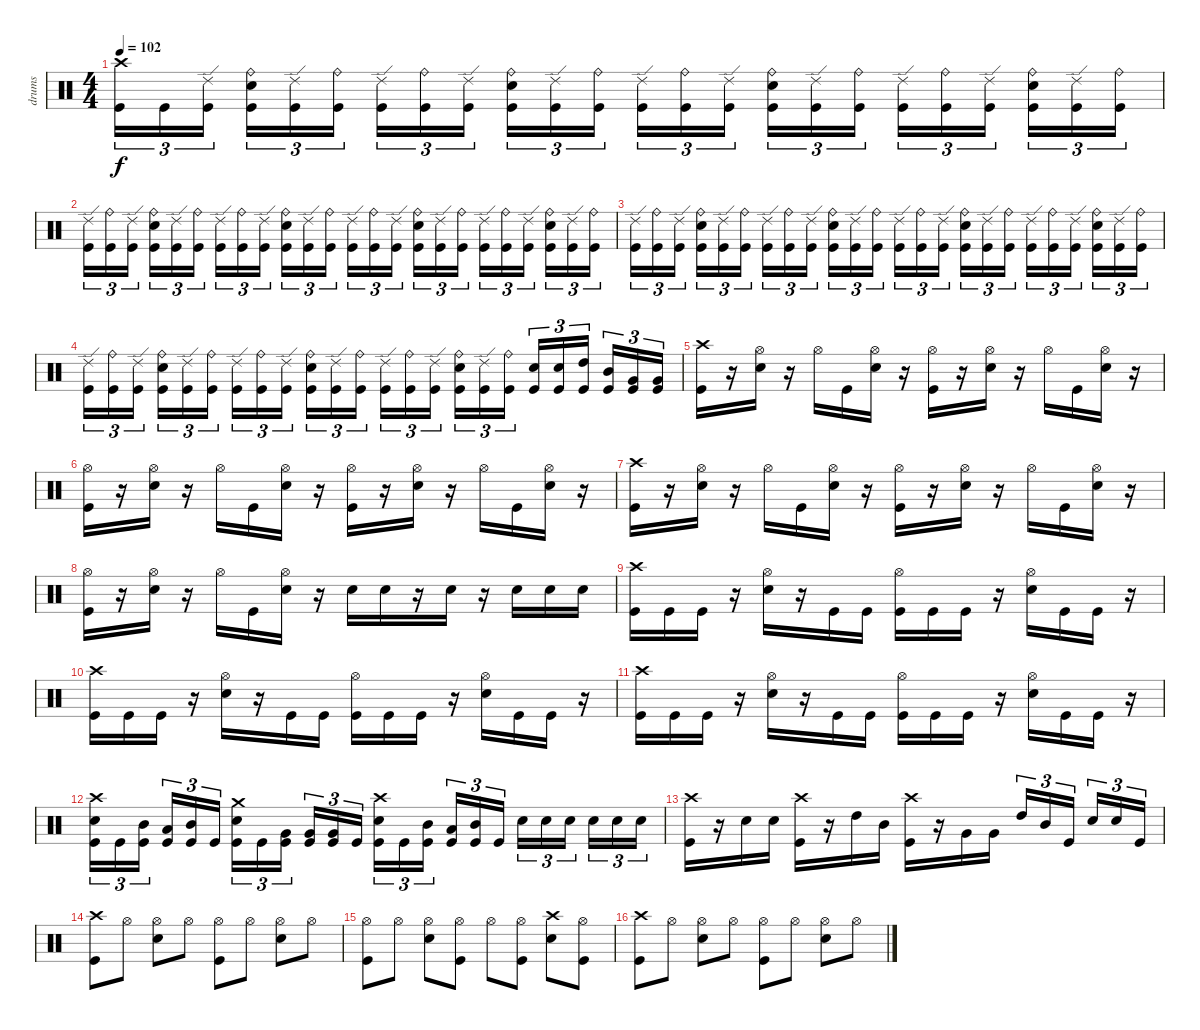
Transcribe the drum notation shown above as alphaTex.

\track ("drums" "drums") {instrument percussion}
\staff {score}
\articulation defaults
\ts (4 4)
\tempo 102
\clef neutral
\ks c
("Crash high (hit)" "Kick (hit)").16{tu (3 2) dy f} "Kick (hit)".16{tu (3 2)} ("Ride (edge) 2" "Kick (hit)").16{tu (3 2)} ("Ride (bell)" "Kick (hit)" "Snare (hit) 2").16{tu (3 2)} ("Ride (edge) 2" "Kick (hit)").16{tu (3 2)} ("Ride (bell)" "Kick (hit)").16{tu (3 2)} ("Ride (edge) 2" "Kick (hit)").16{tu (3 2)} ("Ride (bell)" "Kick (hit)").16{tu (3 2)} ("Ride (edge) 2" "Kick (hit)").16{tu (3 2)} ("Ride (bell)" "Snare (hit) 2" "Kick (hit)").16{tu (3 2)} ("Ride (edge) 2" "Kick (hit)").16{tu (3 2)} ("Ride (bell)" "Kick (hit)").16{tu (3 2)} ("Ride (edge) 2" "Kick (hit)").16{tu (3 2)} ("Ride (bell)" "Kick (hit)").16{tu (3 2)} ("Ride (edge) 2" "Kick (hit)").16{tu (3 2)} ("Ride (bell)" "Snare (hit) 2" "Kick (hit)").16{tu (3 2)} ("Ride (edge) 2" "Kick (hit)").16{tu (3 2)} ("Ride (bell)" "Kick (hit)").16{tu (3 2)} ("Ride (edge) 2" "Kick (hit)").16{tu (3 2)} ("Ride (bell)" "Kick (hit)").16{tu (3 2)} ("Ride (edge) 2" "Kick (hit)").16{tu (3 2)} ("Ride (bell)" "Snare (hit) 2" "Kick (hit)").16{tu (3 2)} ("Ride (edge) 2" "Kick (hit)").16{tu (3 2)} ("Ride (bell)" "Kick (hit)").16{tu (3 2)} |
("Ride (edge) 2" "Kick (hit)").16{tu (3 2)} ("Ride (bell)" "Kick (hit)").16{tu (3 2)} ("Ride (edge) 2" "Kick (hit)").16{tu (3 2)} ("Ride (bell)" "Snare (hit) 2" "Kick (hit)").16{tu (3 2)} ("Ride (edge) 2" "Kick (hit)").16{tu (3 2)} ("Ride (bell)" "Kick (hit)").16{tu (3 2)} ("Ride (edge) 2" "Kick (hit)").16{tu (3 2)} ("Ride (bell)" "Kick (hit)").16{tu (3 2)} ("Ride (edge) 2" "Kick (hit)").16{tu (3 2)} ("Ride (bell)" "Snare (hit) 2" "Kick (hit)").16{tu (3 2)} ("Ride (edge) 2" "Kick (hit)").16{tu (3 2)} ("Ride (bell)" "Kick (hit)").16{tu (3 2)} ("Ride (edge) 2" "Kick (hit)").16{tu (3 2)} ("Ride (bell)" "Kick (hit)").16{tu (3 2)} ("Ride (edge) 2" "Kick (hit)").16{tu (3 2)} ("Ride (bell)" "Snare (hit) 2" "Kick (hit)").16{tu (3 2)} ("Ride (edge) 2" "Kick (hit)").16{tu (3 2)} ("Ride (bell)" "Kick (hit)").16{tu (3 2)} ("Ride (edge) 2" "Kick (hit)").16{tu (3 2)} ("Ride (bell)" "Kick (hit)").16{tu (3 2)} ("Ride (edge) 2" "Kick (hit)").16{tu (3 2)} ("Ride (bell)" "Snare (hit) 2" "Kick (hit)").16{tu (3 2)} ("Ride (edge) 2" "Kick (hit)").16{tu (3 2)} ("Ride (bell)" "Kick (hit)").16{tu (3 2)} |
("Ride (edge) 2" "Kick (hit)").16{tu (3 2)} ("Ride (bell)" "Kick (hit)").16{tu (3 2)} ("Ride (edge) 2" "Kick (hit)").16{tu (3 2)} ("Ride (bell)" "Kick (hit)" "Snare (hit) 2").16{tu (3 2)} ("Ride (edge) 2" "Kick (hit)").16{tu (3 2)} ("Ride (bell)" "Kick (hit)").16{tu (3 2)} ("Ride (edge) 2" "Kick (hit)").16{tu (3 2)} ("Ride (bell)" "Kick (hit)").16{tu (3 2)} ("Ride (edge) 2" "Kick (hit)").16{tu (3 2)} ("Ride (bell)" "Snare (hit) 2" "Kick (hit)").16{tu (3 2)} ("Ride (edge) 2" "Kick (hit)").16{tu (3 2)} ("Ride (bell)" "Kick (hit)").16{tu (3 2)} ("Ride (edge) 2" "Kick (hit)").16{tu (3 2)} ("Ride (bell)" "Kick (hit)").16{tu (3 2)} ("Ride (edge) 2" "Kick (hit)").16{tu (3 2)} ("Ride (bell)" "Snare (hit) 2" "Kick (hit)").16{tu (3 2)} ("Ride (edge) 2" "Kick (hit)").16{tu (3 2)} ("Ride (bell)" "Kick (hit)").16{tu (3 2)} ("Ride (edge) 2" "Kick (hit)").16{tu (3 2)} ("Ride (bell)" "Kick (hit)").16{tu (3 2)} ("Ride (edge) 2" "Kick (hit)").16{tu (3 2)} ("Ride (bell)" "Snare (hit) 2" "Kick (hit)").16{tu (3 2)} ("Ride (edge) 2" "Kick (hit)").16{tu (3 2)} ("Ride (bell)" "Kick (hit)").16{tu (3 2)} |
("Ride (edge) 2" "Kick (hit)").16{tu (3 2)} ("Ride (bell)" "Kick (hit)").16{tu (3 2)} ("Ride (edge) 2" "Kick (hit)").16{tu (3 2)} ("Ride (bell)" "Snare (hit) 2" "Kick (hit)").16{tu (3 2)} ("Ride (edge) 2" "Kick (hit)").16{tu (3 2)} ("Ride (bell)" "Kick (hit)").16{tu (3 2)} ("Ride (edge) 2" "Kick (hit)").16{tu (3 2)} ("Ride (bell)" "Kick (hit)").16{tu (3 2)} ("Ride (edge) 2" "Kick (hit)").16{tu (3 2)} ("Ride (bell)" "Snare (hit) 2" "Kick (hit)").16{tu (3 2)} ("Ride (edge) 2" "Kick (hit)").16{tu (3 2)} ("Ride (bell)" "Kick (hit)").16{tu (3 2)} ("Ride (edge) 2" "Kick (hit)").16{tu (3 2)} ("Ride (bell)" "Kick (hit)").16{tu (3 2)} ("Ride (edge) 2" "Kick (hit)").16{tu (3 2)} ("Ride (bell)" "Snare (hit) 2" "Kick (hit)").16{tu (3 2)} ("Ride (edge) 2" "Kick (hit)").16{tu (3 2)} ("Ride (bell)" "Kick (hit)").16{tu (3 2)} ("Kick (hit)" "Snare (hit) 2").16{tu (3 2)} ("Kick (hit)" "Snare (hit) 2").16{tu (3 2)} ("High Tom (hit)" "Kick (hit)").16{tu (3 2)} ("Mid Tom (hit)" "Kick (hit)").16{tu (3 2)} ("Very Low Tom (hit)" "Kick (hit)").16{tu (3 2)} ("Very Low Tom (hit)" "Kick (hit)").16{tu (3 2)} |
("Crash high (hit)" "Kick (hit)").16 r.16 ("Hi-Hat (open)" "Snare (hit) 2").16 r.16 "Hi-Hat (open)".16 "Kick (hit)".16 ("Hi-Hat (open)" "Snare (hit) 2").16 r.16 ("Hi-Hat (open)" "Kick (hit)").16 r.16 ("Hi-Hat (open)" "Snare (hit) 2").16 r.16 "Hi-Hat (open)".16 "Kick (hit)".16 ("Hi-Hat (open)" "Snare (hit) 2").16 r.16 |
("Hi-Hat (open)" "Kick (hit)").16 r.16 ("Hi-Hat (open)" "Snare (hit) 2").16 r.16 "Hi-Hat (open)".16 "Kick (hit)".16 ("Hi-Hat (open)" "Snare (hit) 2").16 r.16 ("Hi-Hat (open)" "Kick (hit)").16 r.16 ("Hi-Hat (open)" "Snare (hit) 2").16 r.16 "Hi-Hat (open)".16 "Kick (hit)".16 ("Hi-Hat (open)" "Snare (hit) 2").16 r.16 |
("Crash high (hit)" "Kick (hit)").16 r.16 ("Hi-Hat (open)" "Snare (hit) 2").16 r.16 "Hi-Hat (open)".16 "Kick (hit)".16 ("Hi-Hat (open)" "Snare (hit) 2").16 r.16 ("Hi-Hat (open)" "Kick (hit)").16 r.16 ("Hi-Hat (open)" "Snare (hit) 2").16 r.16 "Hi-Hat (open)".16 "Kick (hit)".16 ("Hi-Hat (open)" "Snare (hit) 2").16 r.16 |
("Hi-Hat (open)" "Kick (hit)").16 r.16 ("Hi-Hat (open)" "Snare (hit) 2").16 r.16 "Hi-Hat (open)".16 "Kick (hit)".16 ("Hi-Hat (open)" "Snare (hit) 2").16 r.16 "Snare (hit) 2".16 "Snare (hit) 2".16 r.16 "Snare (hit) 2".16 r.16 "Snare (hit) 2".16 "Snare (hit) 2".16 "Snare (hit) 2".16 |
("Crash high (hit)" "Kick (hit)").16 "Kick (hit)".16 "Kick (hit)".16 r.16 ("Hi-Hat (open)" "Snare (hit) 2").16 r.16 "Kick (hit)".16 "Kick (hit)".16 ("Hi-Hat (open)" "Kick (hit)").16 "Kick (hit)".16 "Kick (hit)".16 r.16 ("Hi-Hat (open)" "Snare (hit) 2").16 "Kick (hit)".16 "Kick (hit)".16 r.16 |
("Crash high (hit)" "Kick (hit)").16 "Kick (hit)".16 "Kick (hit)".16 r.16 ("Hi-Hat (open)" "Snare (hit) 2").16 r.16 "Kick (hit)".16 "Kick (hit)".16 ("Hi-Hat (open)" "Kick (hit)").16 "Kick (hit)".16 "Kick (hit)".16 r.16 ("Hi-Hat (open)" "Snare (hit) 2").16 "Kick (hit)".16 "Kick (hit)".16 r.16 |
("Crash high (hit)" "Kick (hit)").16 "Kick (hit)".16 "Kick (hit)".16 r.16 ("Hi-Hat (open)" "Snare (hit) 2").16 r.16 "Kick (hit)".16 "Kick (hit)".16 ("Hi-Hat (open)" "Kick (hit)").16 "Kick (hit)".16 "Kick (hit)".16 r.16 ("Hi-Hat (open)" "Snare (hit) 2").16 "Kick (hit)".16 "Kick (hit)".16 r.16 |
("Crash high (hit)" "Snare (hit) 2" "Kick (hit)").16{tu (3 2)} "Kick (hit)".16{tu (3 2)} ("Kick (hit)" "Mid Tom (hit)").16{tu (3 2)} ("Kick (hit)" "Low Tom (hit)").16{tu (3 2)} ("Kick (hit)" "Mid Tom (hit)").16{tu (3 2)} "Kick (hit)".16{tu (3 2)} ("Crash medium (hit)" "Snare (hit) 2" "Kick (hit)").16{tu (3 2)} "Kick (hit)".16{tu (3 2)} ("Very Low Tom (hit)" "Kick (hit)").16{tu (3 2)} ("Very Low Tom (hit)" "Kick (hit)").16{tu (3 2)} ("Very Low Tom (hit)" "Kick (hit)").16{tu (3 2)} "Kick (hit)".16{tu (3 2)} ("Snare (hit) 2" "Crash high (hit)" "Kick (hit)").16{tu (3 2)} "Kick (hit)".16{tu (3 2)} ("Mid Tom (hit)" "Kick (hit)").16{tu (3 2)} ("Low Tom (hit)" "Kick (hit)").16{tu (3 2)} ("Mid Tom (hit)" "Kick (hit)").16{tu (3 2)} "Kick (hit)".16{tu (3 2)} "Snare (hit) 2".16{tu (3 2)} "Snare (hit) 2".16{tu (3 2)} "Snare (hit) 2".16{tu (3 2)} "Snare (hit) 2".16{tu (3 2)} "Snare (hit) 2".16{tu (3 2)} "Snare (hit) 2".16{tu (3 2)} |
("Kick (hit)" "Crash high (hit)").16 r.16 "Snare (hit) 2".16 "Snare (hit) 2".16 ("Kick (hit)" "Crash high (hit)").16 r.16 "High Tom (hit)".16 "Mid Tom (hit)".16 ("Crash high (hit)" "Kick (hit)").16 r.16 "Very Low Tom (hit)".16 "Very Low Tom (hit)".16 "High Tom (hit)".16{tu (3 2)} "Mid Tom (hit)".16{tu (3 2)} "Kick (hit)".16{tu (3 2)} "Snare (hit) 2".16{tu (3 2)} "Snare (hit) 2".16{tu (3 2)} "Kick (hit)".16{tu (3 2)} |
("Crash high (hit)" "Kick (hit)").8 "Hi-Hat (open)".8 ("Hi-Hat (open)" "Snare (hit) 2").8 "Hi-Hat (open)".8 ("Hi-Hat (open)" "Kick (hit)").8 "Hi-Hat (open)".8 ("Hi-Hat (open)" "Snare (hit) 2").8 "Hi-Hat (open)".8 |
("Hi-Hat (open)" "Kick (hit)").8 "Hi-Hat (open)".8 ("Hi-Hat (open)" "Snare (hit) 2").8 ("Hi-Hat (open)" "Kick (hit)").8 "Hi-Hat (open)".8 ("Kick (hit)" "Hi-Hat (open)").8 ("Crash high (hit)" "Snare (hit) 2").8 ("Kick (hit)" "Hi-Hat (open)").8 |
("Crash high (hit)" "Kick (hit)").8 "Hi-Hat (open)".8 ("Hi-Hat (open)" "Snare (hit) 2").8 "Hi-Hat (open)".8 ("Hi-Hat (open)" "Kick (hit)").8 "Hi-Hat (open)".8 ("Hi-Hat (open)" "Snare (hit) 2").8 "Hi-Hat (open)".8
